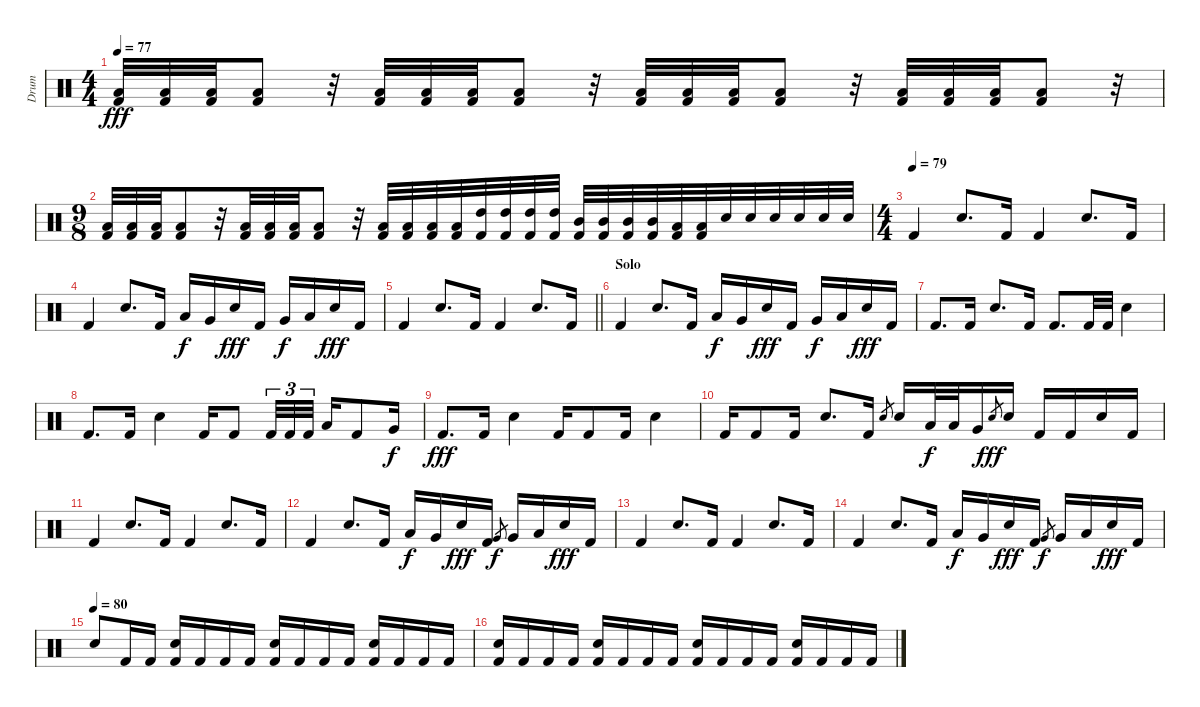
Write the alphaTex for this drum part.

\track ("Drum" "Drum") {instrument percussion}
\staff {score}
\articulation defaults
\ts (4 4)
\tempo 77
\clef neutral
\ks c
("Low Tom (hit)" "Kick (hit) 2").32{dy fff} ("Low Tom (hit)" "Kick (hit) 2").32 ("Low Tom (hit)" "Kick (hit) 2").32 ("Low Tom (hit)" "Kick (hit) 2").8 r.32 ("Low Tom (hit)" "Kick (hit) 2").32 ("Low Tom (hit)" "Kick (hit) 2").32 ("Low Tom (hit)" "Kick (hit) 2").32 ("Low Tom (hit)" "Kick (hit) 2").8 r.32 ("Low Tom (hit)" "Kick (hit) 2").32 ("Low Tom (hit)" "Kick (hit) 2").32 ("Low Tom (hit)" "Kick (hit) 2").32 ("Low Tom (hit)" "Kick (hit) 2").8 r.32 ("Low Tom (hit)" "Kick (hit) 2").32 ("Low Tom (hit)" "Kick (hit) 2").32 ("Low Tom (hit)" "Kick (hit) 2").32 ("Low Tom (hit)" "Kick (hit) 2").8 r.32 |
\ts (9 8)
("Low Tom (hit)" "Kick (hit) 2").32 ("Low Tom (hit)" "Kick (hit) 2").32 ("Low Tom (hit)" "Kick (hit) 2").32 ("Low Tom (hit)" "Kick (hit) 2").8 r.32 ("Low Tom (hit)" "Kick (hit) 2").32 ("Low Tom (hit)" "Kick (hit) 2").32 ("Low Tom (hit)" "Kick (hit) 2").32 ("Low Tom (hit)" "Kick (hit) 2").8 r.32 ("Low Tom (hit)" "Kick (hit) 2").32 ("Low Tom (hit)" "Kick (hit) 2").32 ("Low Tom (hit)" "Kick (hit) 2").32 ("Low Tom (hit)" "Kick (hit) 2").32 ("High Tom (hit)" "Kick (hit) 2").32 ("High Tom (hit)" "Kick (hit) 2").32 ("High Tom (hit)" "Kick (hit) 2").32 ("High Tom (hit)" "Kick (hit) 2").32 ("Mid Tom (hit)" "Kick (hit) 2").32 ("Mid Tom (hit)" "Kick (hit) 2").32 ("Mid Tom (hit)" "Kick (hit) 2").32 ("Mid Tom (hit)" "Kick (hit) 2").32 ("Low Tom (hit)" "Kick (hit) 2").32 ("Low Tom (hit)" "Kick (hit) 2").32 "Electric Snare (hit)".32 "Electric Snare (hit)".32 "Electric Snare (hit)".32 "Electric Snare (hit)".32 "Electric Snare (hit)".32 "Electric Snare (hit)".32 |
\ts (4 4)
\tempo (79)
"Kick (hit) 2".4 "Electric Snare (hit)".8{d} "Kick (hit) 2".16 "Kick (hit) 2".4 "Electric Snare (hit)".8{d} "Kick (hit) 2".16 |
"Kick (hit) 2".4 "Electric Snare (hit)".8{d} "Kick (hit) 2".16 "Low Tom (hit)".16{dy f} "Very Low Tom (hit)".16 "Electric Snare (hit)".16{dy fff} "Kick (hit) 2".16 "Very Low Tom (hit)".16{dy f} "Low Floor Tom (hit)".16 "Electric Snare (hit)".16{dy fff} "Kick (hit) 2".16 |
\barLineRight lightlight "Kick (hit) 2".4 "Electric Snare (hit)".8{d} "Kick (hit) 2".16 "Kick (hit) 2".4 "Electric Snare (hit)".8{d} "Kick (hit) 2".16
|
\section ("" "Solo")
"Kick (hit) 2".4 "Electric Snare (hit)".8{d} "Kick (hit) 2".16 "Low Tom (hit)".16{dy f} "Very Low Tom (hit)".16 "Electric Snare (hit)".16{dy fff} "Kick (hit) 2".16 "Very Low Tom (hit)".16{dy f} "Low Floor Tom (hit)".16 "Electric Snare (hit)".16{dy fff} "Kick (hit) 2".16 |
"Kick (hit) 2".8{d} "Kick (hit) 2".16 "Electric Snare (hit)".8{d} "Kick (hit) 2".16 "Kick (hit) 2".8{d} "Kick (hit) 2".32 "Kick (hit) 2".32 "Electric Snare (hit)".4 |
"Kick (hit) 2".8{d} "Kick (hit) 2".16 "Electric Snare (hit)".4 "Kick (hit) 2".16 "Kick (hit) 2".8 "Kick (hit) 2".32{tu (3 2)} "Kick (hit) 2".32{tu (3 2)} "Kick (hit) 2".32{tu (3 2)} "Low Tom (hit)".16 "Kick (hit) 2".8 "Very Low Tom (hit)".16{dy f} |
"Kick (hit) 2".8{d dy fff} "Kick (hit) 2".16 "Electric Snare (hit)".4 "Kick (hit) 2".16 "Kick (hit) 2".8 "Kick (hit) 2".16 "Electric Snare (hit)".4 |
"Kick (hit) 2".16 "Kick (hit) 2".8 "Kick (hit) 2".16 "Electric Snare (hit)".8{d} "Kick (hit) 2".16 "Electric Snare (hit)".8{gr} "Electric Snare (hit)".16 "Low Tom (hit)".32{dy f} "Low Tom (hit)".32 "Very Low Tom (hit)".16 "Electric Snare (hit)".8{gr dy fff} "Electric Snare (hit)".16 "Kick (hit) 2".16 "Kick (hit) 2".16 "Electric Snare (hit)".16 "Kick (hit) 2".16 |
"Kick (hit) 2".4 "Electric Snare (hit)".8{d} "Kick (hit) 2".16 "Kick (hit) 2".4 "Electric Snare (hit)".8{d} "Kick (hit) 2".16 |
"Kick (hit) 2".4 "Electric Snare (hit)".8{d} "Kick (hit) 2".16 "Low Tom (hit)".16{dy f} "Very Low Tom (hit)".16 "Electric Snare (hit)".16{dy fff} "Kick (hit) 2".16 "Very Low Tom (hit)".8{gr dy f} "Very Low Tom (hit)".16 "Low Floor Tom (hit)".16 "Electric Snare (hit)".16{dy fff} "Kick (hit) 2".16 |
"Kick (hit) 2".4 "Electric Snare (hit)".8{d} "Kick (hit) 2".16 "Kick (hit) 2".4 "Electric Snare (hit)".8{d} "Kick (hit) 2".16 |
"Kick (hit) 2".4 "Electric Snare (hit)".8{d} "Kick (hit) 2".16 "Low Tom (hit)".16{dy f} "Very Low Tom (hit)".16 "Electric Snare (hit)".16{dy fff} "Kick (hit) 2".16 "Very Low Tom (hit)".8{gr dy f} "Very Low Tom (hit)".16 "Low Floor Tom (hit)".16 "Electric Snare (hit)".16{dy fff} "Kick (hit) 2".16 |
\tempo (80)
"Electric Snare (hit)".8 "Kick (hit) 2".16 "Kick (hit) 2".16 ("Electric Snare (hit)" "Kick (hit) 2").16 "Kick (hit) 2".16 "Kick (hit) 2".16 "Kick (hit) 2".16 ("Electric Snare (hit)" "Kick (hit) 2").16 "Kick (hit) 2".16 "Kick (hit) 2".16 "Kick (hit) 2".16 ("Electric Snare (hit)" "Kick (hit) 2").16 "Kick (hit) 2".16 "Kick (hit) 2".16 "Kick (hit) 2".16 |
("Electric Snare (hit)" "Kick (hit) 2").16 "Kick (hit) 2".16 "Kick (hit) 2".16 "Kick (hit) 2".16 ("Electric Snare (hit)" "Kick (hit) 2").16 "Kick (hit) 2".16 "Kick (hit) 2".16 "Kick (hit) 2".16 ("Electric Snare (hit)" "Kick (hit) 2").16 "Kick (hit) 2".16 "Kick (hit) 2".16 "Kick (hit) 2".16 ("Electric Snare (hit)" "Kick (hit) 2").16 "Kick (hit) 2".16 "Kick (hit) 2".16 "Kick (hit) 2".16
